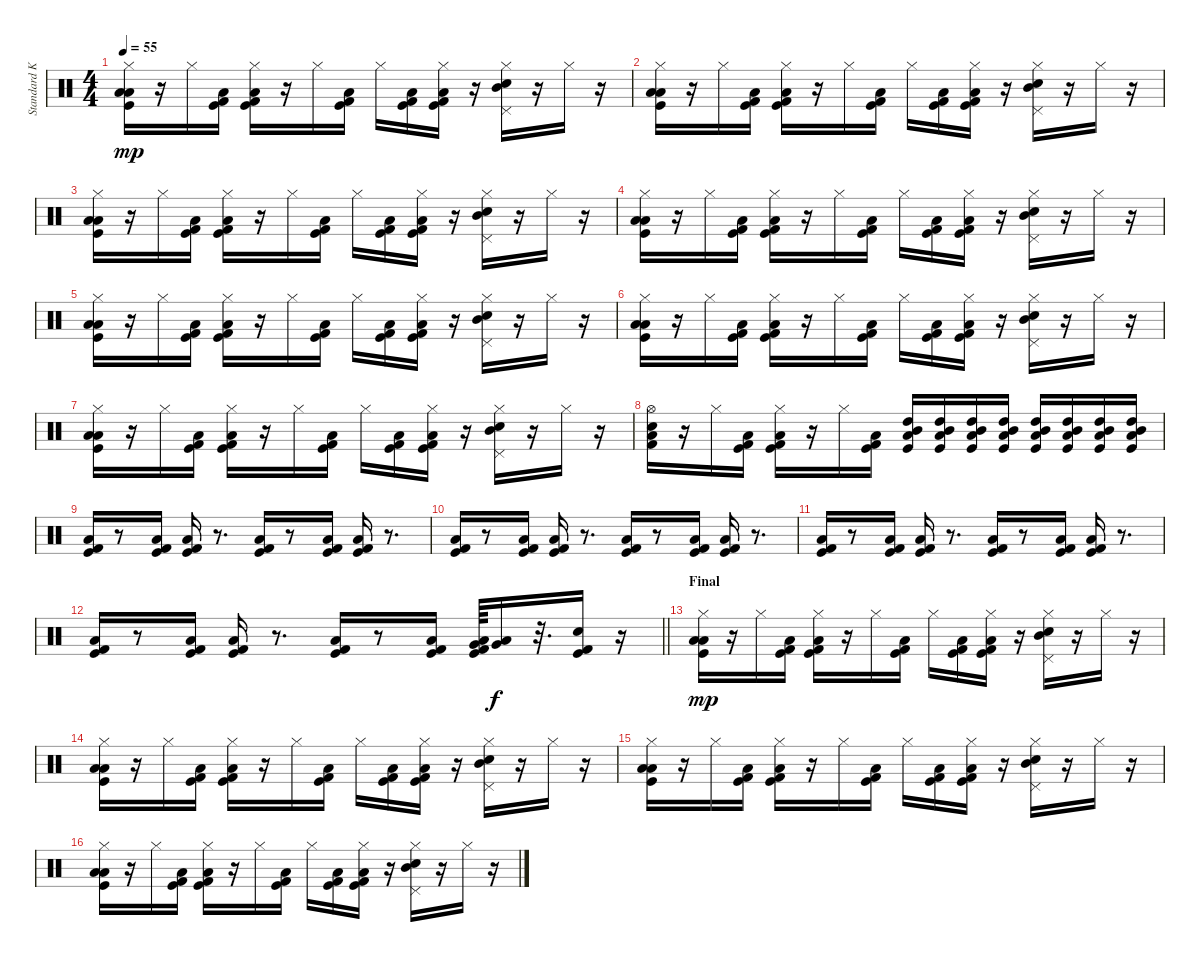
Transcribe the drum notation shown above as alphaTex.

\track ("Standard Kit" "Standard K") {instrument percussion}
\staff {score}
\articulation defaults
\ts (4 4)
\tempo 55
\clef neutral
\ks c
("Kick (hit)" "Low Floor Tom (hit)" "Low Floor Tom (hit)" "Hi-Hat (closed)").16{dy mp} r.16 "Hi-Hat (closed)".16 ("Kick (hit)" "Kick (hit) 2" "Low Floor Tom (hit)").16 ("Kick (hit)" "Kick (hit) 2" "Low Floor Tom (hit)" "Hi-Hat (closed)").16 r.16 "Hi-Hat (closed)".16 ("Kick (hit)" "Kick (hit) 2" "Low Floor Tom (hit)").16 "Hi-Hat (closed)".16 ("Kick (hit)" "Kick (hit) 2" "Low Floor Tom (hit)").16 ("Kick (hit)" "Kick (hit) 2" "Low Floor Tom (hit)" "Hi-Hat (closed)").16 r.16 ("Electric Snare (hit)" "Pedal Hi-Hat (hit)" "Mid Tom (hit)" "Hi-Hat (closed)").16 r.16 "Hi-Hat (closed)".16 r.16 |
("Kick (hit)" "Low Floor Tom (hit)" "Low Floor Tom (hit)" "Hi-Hat (closed)").16 r.16 "Hi-Hat (closed)".16 ("Kick (hit)" "Kick (hit) 2" "Low Floor Tom (hit)").16 ("Kick (hit)" "Kick (hit) 2" "Low Floor Tom (hit)" "Hi-Hat (closed)").16 r.16 "Hi-Hat (closed)".16 ("Kick (hit)" "Kick (hit) 2" "Low Floor Tom (hit)").16 "Hi-Hat (closed)".16 ("Kick (hit)" "Kick (hit) 2" "Low Floor Tom (hit)").16 ("Kick (hit)" "Kick (hit) 2" "Low Floor Tom (hit)" "Hi-Hat (closed)").16 r.16 ("Electric Snare (hit)" "Pedal Hi-Hat (hit)" "Mid Tom (hit)" "Hi-Hat (closed)").16 r.16 "Hi-Hat (closed)".16 r.16 |
("Kick (hit)" "Low Floor Tom (hit)" "Low Floor Tom (hit)" "Hi-Hat (closed)").16 r.16 "Hi-Hat (closed)".16 ("Kick (hit)" "Kick (hit) 2" "Low Floor Tom (hit)").16 ("Kick (hit)" "Kick (hit) 2" "Low Floor Tom (hit)" "Hi-Hat (closed)").16 r.16 "Hi-Hat (closed)".16 ("Kick (hit)" "Kick (hit) 2" "Low Floor Tom (hit)").16 "Hi-Hat (closed)".16 ("Kick (hit)" "Kick (hit) 2" "Low Floor Tom (hit)").16 ("Kick (hit)" "Kick (hit) 2" "Low Floor Tom (hit)" "Hi-Hat (closed)").16 r.16 ("Electric Snare (hit)" "Pedal Hi-Hat (hit)" "Mid Tom (hit)" "Hi-Hat (closed)").16 r.16 "Hi-Hat (closed)".16 r.16 |
("Kick (hit)" "Low Floor Tom (hit)" "Low Floor Tom (hit)" "Hi-Hat (closed)").16 r.16 "Hi-Hat (closed)".16 ("Kick (hit)" "Kick (hit) 2" "Low Floor Tom (hit)").16 ("Kick (hit)" "Kick (hit) 2" "Low Floor Tom (hit)" "Hi-Hat (closed)").16 r.16 "Hi-Hat (closed)".16 ("Kick (hit)" "Kick (hit) 2" "Low Floor Tom (hit)").16 "Hi-Hat (closed)".16 ("Kick (hit)" "Kick (hit) 2" "Low Floor Tom (hit)").16 ("Kick (hit)" "Kick (hit) 2" "Low Floor Tom (hit)" "Hi-Hat (closed)").16 r.16 ("Electric Snare (hit)" "Pedal Hi-Hat (hit)" "Mid Tom (hit)" "Hi-Hat (closed)").16 r.16 "Hi-Hat (closed)".16 r.16 |
("Kick (hit)" "Low Floor Tom (hit)" "Low Floor Tom (hit)" "Hi-Hat (closed)").16 r.16 "Hi-Hat (closed)".16 ("Kick (hit)" "Kick (hit) 2" "Low Floor Tom (hit)").16 ("Kick (hit)" "Kick (hit) 2" "Low Floor Tom (hit)" "Hi-Hat (closed)").16 r.16 "Hi-Hat (closed)".16 ("Kick (hit)" "Kick (hit) 2" "Low Floor Tom (hit)").16 "Hi-Hat (closed)".16 ("Kick (hit)" "Kick (hit) 2" "Low Floor Tom (hit)").16 ("Kick (hit)" "Kick (hit) 2" "Low Floor Tom (hit)" "Hi-Hat (closed)").16 r.16 ("Electric Snare (hit)" "Pedal Hi-Hat (hit)" "Mid Tom (hit)" "Hi-Hat (closed)").16 r.16 "Hi-Hat (closed)".16 r.16 |
("Kick (hit)" "Low Floor Tom (hit)" "Low Floor Tom (hit)" "Hi-Hat (closed)").16 r.16 "Hi-Hat (closed)".16 ("Kick (hit)" "Kick (hit) 2" "Low Floor Tom (hit)").16 ("Kick (hit)" "Kick (hit) 2" "Low Floor Tom (hit)" "Hi-Hat (closed)").16 r.16 "Hi-Hat (closed)".16 ("Kick (hit)" "Kick (hit) 2" "Low Floor Tom (hit)").16 "Hi-Hat (closed)".16 ("Kick (hit)" "Kick (hit) 2" "Low Floor Tom (hit)").16 ("Kick (hit)" "Kick (hit) 2" "Low Floor Tom (hit)" "Hi-Hat (closed)").16 r.16 ("Electric Snare (hit)" "Pedal Hi-Hat (hit)" "Mid Tom (hit)" "Hi-Hat (closed)").16 r.16 "Hi-Hat (closed)".16 r.16 |
("Kick (hit)" "Low Floor Tom (hit)" "Low Floor Tom (hit)" "Hi-Hat (closed)").16 r.16 "Hi-Hat (closed)".16 ("Kick (hit)" "Kick (hit) 2" "Low Floor Tom (hit)").16 ("Kick (hit)" "Kick (hit) 2" "Low Floor Tom (hit)" "Hi-Hat (closed)").16 r.16 "Hi-Hat (closed)".16 ("Kick (hit)" "Kick (hit) 2" "Low Floor Tom (hit)").16 "Hi-Hat (closed)".16 ("Kick (hit)" "Kick (hit) 2" "Low Floor Tom (hit)").16 ("Kick (hit)" "Kick (hit) 2" "Low Floor Tom (hit)" "Hi-Hat (closed)").16 r.16 ("Electric Snare (hit)" "Pedal Hi-Hat (hit)" "Mid Tom (hit)" "Hi-Hat (closed)").16 r.16 "Hi-Hat (closed)".16 r.16 |
("Kick (hit) 2" "Low Floor Tom (hit)" "Snare (hit) 2" "Hi-Hat (open)").16 r.16 "Hi-Hat (closed)".16 ("Kick (hit)" "Kick (hit) 2" "Low Floor Tom (hit)").16 ("Kick (hit)" "Kick (hit) 2" "Low Floor Tom (hit)" "Hi-Hat (closed)").16 r.16 "Hi-Hat (closed)".16 ("Kick (hit)" "Kick (hit) 2" "Low Floor Tom (hit)").16 ("Kick (hit)" "Low Floor Tom (hit)" "Mid Tom (hit)" "High Tom (hit)").16 ("Kick (hit)" "Low Floor Tom (hit)" "Mid Tom (hit)" "High Tom (hit)").16 ("Kick (hit)" "Low Floor Tom (hit)" "Mid Tom (hit)" "High Tom (hit)").16 ("Kick (hit)" "Low Floor Tom (hit)" "Mid Tom (hit)" "High Tom (hit)").16 ("Kick (hit)" "Low Floor Tom (hit)" "Mid Tom (hit)" "High Tom (hit)").16 ("Kick (hit)" "Low Floor Tom (hit)" "Mid Tom (hit)" "High Tom (hit)").16 ("Kick (hit)" "Low Floor Tom (hit)" "Mid Tom (hit)" "High Tom (hit)").16 ("Kick (hit)" "Low Floor Tom (hit)" "Mid Tom (hit)" "High Tom (hit)").16 |
("Kick (hit)" "Kick (hit) 2" "Low Floor Tom (hit)").16 r.8 ("Kick (hit)" "Kick (hit) 2" "Low Floor Tom (hit)").16 ("Kick (hit)" "Kick (hit) 2" "Low Floor Tom (hit)").16 r.8{d} ("Kick (hit)" "Kick (hit) 2" "Low Floor Tom (hit)").16 r.8 ("Kick (hit)" "Kick (hit) 2" "Low Floor Tom (hit)").16 ("Kick (hit)" "Kick (hit) 2" "Low Floor Tom (hit)").16 r.8{d} |
("Kick (hit)" "Kick (hit) 2" "Low Floor Tom (hit)").16 r.8 ("Kick (hit)" "Kick (hit) 2" "Low Floor Tom (hit)").16 ("Kick (hit)" "Kick (hit) 2" "Low Floor Tom (hit)").16 r.8{d} ("Kick (hit)" "Kick (hit) 2" "Low Floor Tom (hit)").16 r.8 ("Kick (hit)" "Kick (hit) 2" "Low Floor Tom (hit)").16 ("Kick (hit)" "Kick (hit) 2" "Low Floor Tom (hit)").16 r.8{d} |
("Kick (hit)" "Kick (hit) 2" "Low Floor Tom (hit)").16 r.8 ("Kick (hit)" "Kick (hit) 2" "Low Floor Tom (hit)").16 ("Kick (hit)" "Kick (hit) 2" "Low Floor Tom (hit)").16 r.8{d} ("Kick (hit)" "Kick (hit) 2" "Low Floor Tom (hit)").16 r.8 ("Kick (hit)" "Kick (hit) 2" "Low Floor Tom (hit)").16 ("Kick (hit)" "Kick (hit) 2" "Low Floor Tom (hit)").16 r.8{d} |
\barLineRight lightlight
("Kick (hit)" "Kick (hit) 2" "Low Floor Tom (hit)").16 r.8 ("Kick (hit)" "Kick (hit) 2" "Low Floor Tom (hit)").16 ("Kick (hit)" "Kick (hit) 2" "Low Floor Tom (hit)").16 r.8{d} ("Kick (hit)" "Kick (hit) 2" "Low Floor Tom (hit)").16 r.8 ("Kick (hit)" "Kick (hit) 2" "Low Floor Tom (hit)").16 ("Kick (hit)" "Kick (hit) 2" "Low Floor Tom (hit)" "Very Low Tom (hit)").64 ("Very Low Tom (hit)" "Low Floor Tom (hit)").16{dy f} r.32{d} ("Kick (hit)" "Kick (hit) 2" "Electric Snare (hit)").16 r.16 |
\section ("" "Final")
("Kick (hit)" "Low Floor Tom (hit)" "Low Floor Tom (hit)" "Hi-Hat (closed)").16{dy mp} r.16 "Hi-Hat (closed)".16 ("Kick (hit)" "Kick (hit) 2" "Low Floor Tom (hit)").16 ("Kick (hit)" "Kick (hit) 2" "Low Floor Tom (hit)" "Hi-Hat (closed)").16 r.16 "Hi-Hat (closed)".16 ("Kick (hit)" "Kick (hit) 2" "Low Floor Tom (hit)").16 "Hi-Hat (closed)".16 ("Kick (hit)" "Kick (hit) 2" "Low Floor Tom (hit)").16 ("Kick (hit)" "Kick (hit) 2" "Low Floor Tom (hit)" "Hi-Hat (closed)").16 r.16 ("Electric Snare (hit)" "Pedal Hi-Hat (hit)" "Mid Tom (hit)" "Hi-Hat (closed)").16 r.16 "Hi-Hat (closed)".16 r.16 |
("Kick (hit)" "Low Floor Tom (hit)" "Low Floor Tom (hit)" "Hi-Hat (closed)").16 r.16 "Hi-Hat (closed)".16 ("Kick (hit)" "Kick (hit) 2" "Low Floor Tom (hit)").16 ("Kick (hit)" "Kick (hit) 2" "Low Floor Tom (hit)" "Hi-Hat (closed)").16 r.16 "Hi-Hat (closed)".16 ("Kick (hit)" "Kick (hit) 2" "Low Floor Tom (hit)").16 "Hi-Hat (closed)".16 ("Kick (hit)" "Kick (hit) 2" "Low Floor Tom (hit)").16 ("Kick (hit)" "Kick (hit) 2" "Low Floor Tom (hit)" "Hi-Hat (closed)").16 r.16 ("Electric Snare (hit)" "Pedal Hi-Hat (hit)" "Mid Tom (hit)" "Hi-Hat (closed)").16 r.16 "Hi-Hat (closed)".16 r.16 |
("Kick (hit)" "Low Floor Tom (hit)" "Low Floor Tom (hit)" "Hi-Hat (closed)").16 r.16 "Hi-Hat (closed)".16 ("Kick (hit)" "Kick (hit) 2" "Low Floor Tom (hit)").16 ("Kick (hit)" "Kick (hit) 2" "Low Floor Tom (hit)" "Hi-Hat (closed)").16 r.16 "Hi-Hat (closed)".16 ("Kick (hit)" "Kick (hit) 2" "Low Floor Tom (hit)").16 "Hi-Hat (closed)".16 ("Kick (hit)" "Kick (hit) 2" "Low Floor Tom (hit)").16 ("Kick (hit)" "Kick (hit) 2" "Low Floor Tom (hit)" "Hi-Hat (closed)").16 r.16 ("Electric Snare (hit)" "Pedal Hi-Hat (hit)" "Mid Tom (hit)" "Hi-Hat (closed)").16 r.16 "Hi-Hat (closed)".16 r.16 |
("Kick (hit)" "Low Floor Tom (hit)" "Low Floor Tom (hit)" "Hi-Hat (closed)").16 r.16 "Hi-Hat (closed)".16 ("Kick (hit)" "Kick (hit) 2" "Low Floor Tom (hit)").16 ("Kick (hit)" "Kick (hit) 2" "Low Floor Tom (hit)" "Hi-Hat (closed)").16 r.16 "Hi-Hat (closed)".16 ("Kick (hit)" "Kick (hit) 2" "Low Floor Tom (hit)").16 "Hi-Hat (closed)".16 ("Kick (hit)" "Kick (hit) 2" "Low Floor Tom (hit)").16 ("Kick (hit)" "Kick (hit) 2" "Low Floor Tom (hit)" "Hi-Hat (closed)").16 r.16 ("Electric Snare (hit)" "Pedal Hi-Hat (hit)" "Mid Tom (hit)" "Hi-Hat (closed)").16 r.16 "Hi-Hat (closed)".16 r.16
